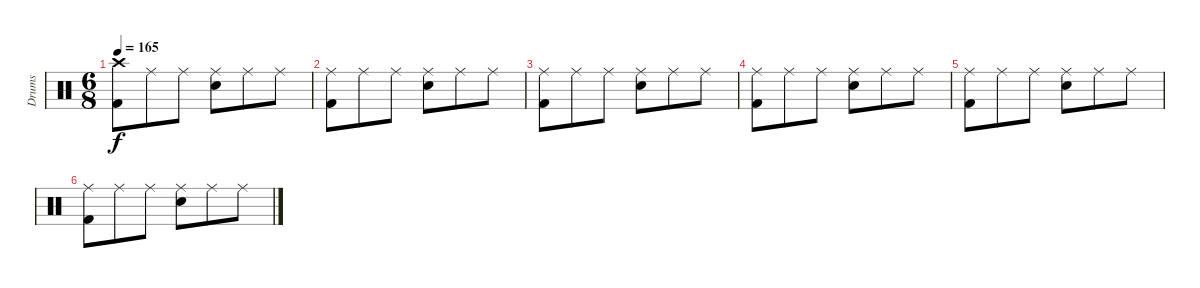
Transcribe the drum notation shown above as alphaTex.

\track ("Drums" "Drums") {instrument percussion}
\staff {score}
\articulation defaults
\ts (6 8)
\tempo 165
\clef neutral
\ks c
("Crash high (hit)" "Kick (hit) 2").8{dy f} "Ride (middle)".8 "Ride (middle)".8 ("Ride (middle)" "Electric Snare (hit)").8 "Ride (middle)".8 "Ride (middle)".8 |
("Ride (middle)" "Kick (hit) 2").8 "Ride (middle)".8 "Ride (middle)".8 ("Ride (middle)" "Electric Snare (hit)").8 "Ride (middle)".8 "Ride (middle)".8 |
("Ride (middle)" "Kick (hit) 2").8 "Ride (middle)".8 "Ride (middle)".8 ("Ride (middle)" "Electric Snare (hit)").8 "Ride (middle)".8 "Ride (middle)".8 |
("Ride (middle)" "Kick (hit) 2").8 "Ride (middle)".8 "Ride (middle)".8 ("Ride (middle)" "Electric Snare (hit)").8 "Ride (middle)".8 "Ride (middle)".8 |
("Ride (middle)" "Kick (hit) 2").8 "Ride (middle)".8 "Ride (middle)".8 ("Ride (middle)" "Electric Snare (hit)").8 "Ride (middle)".8 "Ride (middle)".8 |
("Ride (middle)" "Kick (hit) 2").8 "Ride (middle)".8 "Ride (middle)".8 ("Ride (middle)" "Electric Snare (hit)").8 "Ride (middle)".8 "Ride (middle)".8
